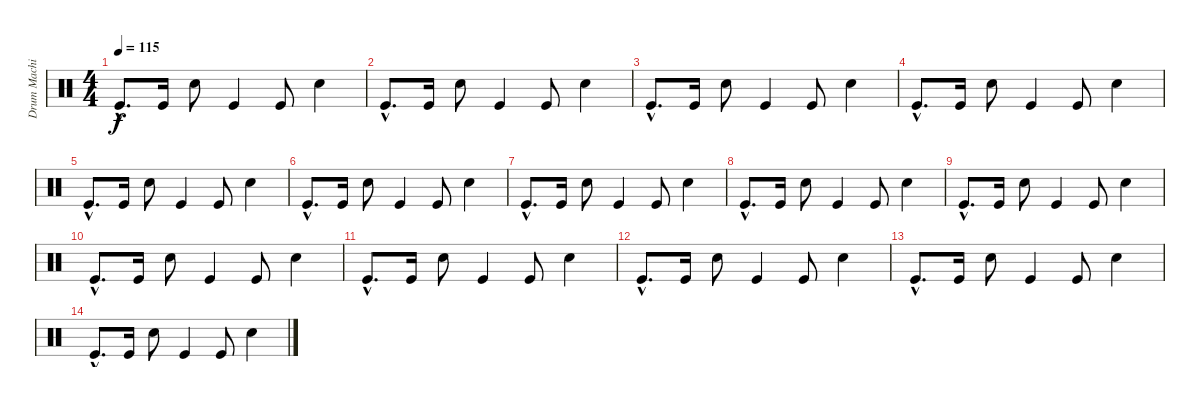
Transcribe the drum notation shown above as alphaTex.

\track ("Drum Machine" "Drum Machi") {instrument percussion}
\staff {score}
\articulation defaults
\ts (4 4)
\tempo 115
\clef neutral
\ks c "Kick (hit)"{hac}.8{d dy f} "Kick (hit)".16 "Snare (hit) 2".8 "Kick (hit)".4 "Kick (hit)".8 "Snare (hit) 2".4
|
"Kick (hit)"{hac}.8{d} "Kick (hit)".16 "Snare (hit) 2".8 "Kick (hit)".4 "Kick (hit)".8 "Snare (hit) 2".4 |
"Kick (hit)"{hac}.8{d} "Kick (hit)".16 "Snare (hit) 2".8 "Kick (hit)".4 "Kick (hit)".8 "Snare (hit) 2".4 |
"Kick (hit)"{hac}.8{d} "Kick (hit)".16 "Snare (hit) 2".8 "Kick (hit)".4 "Kick (hit)".8 "Snare (hit) 2".4 |
"Kick (hit)"{hac}.8{d} "Kick (hit)".16 "Snare (hit) 2".8 "Kick (hit)".4 "Kick (hit)".8 "Snare (hit) 2".4 |
"Kick (hit)"{hac}.8{d} "Kick (hit)".16 "Snare (hit) 2".8 "Kick (hit)".4 "Kick (hit)".8 "Snare (hit) 2".4 |
"Kick (hit)"{hac}.8{d} "Kick (hit)".16 "Snare (hit) 2".8 "Kick (hit)".4 "Kick (hit)".8 "Snare (hit) 2".4 |
"Kick (hit)"{hac}.8{d} "Kick (hit)".16 "Snare (hit) 2".8 "Kick (hit)".4 "Kick (hit)".8 "Snare (hit) 2".4 |
"Kick (hit)"{hac}.8{d} "Kick (hit)".16 "Snare (hit) 2".8 "Kick (hit)".4 "Kick (hit)".8 "Snare (hit) 2".4 |
"Kick (hit)"{hac}.8{d} "Kick (hit)".16 "Snare (hit) 2".8 "Kick (hit)".4 "Kick (hit)".8 "Snare (hit) 2".4 |
"Kick (hit)"{hac}.8{d} "Kick (hit)".16 "Snare (hit) 2".8 "Kick (hit)".4 "Kick (hit)".8 "Snare (hit) 2".4 |
"Kick (hit)"{hac}.8{d} "Kick (hit)".16 "Snare (hit) 2".8 "Kick (hit)".4 "Kick (hit)".8 "Snare (hit) 2".4 |
"Kick (hit)"{hac}.8{d} "Kick (hit)".16 "Snare (hit) 2".8 "Kick (hit)".4 "Kick (hit)".8 "Snare (hit) 2".4 |
"Kick (hit)"{hac}.8{d} "Kick (hit)".16 "Snare (hit) 2".8 "Kick (hit)".4 "Kick (hit)".8 "Snare (hit) 2".4
